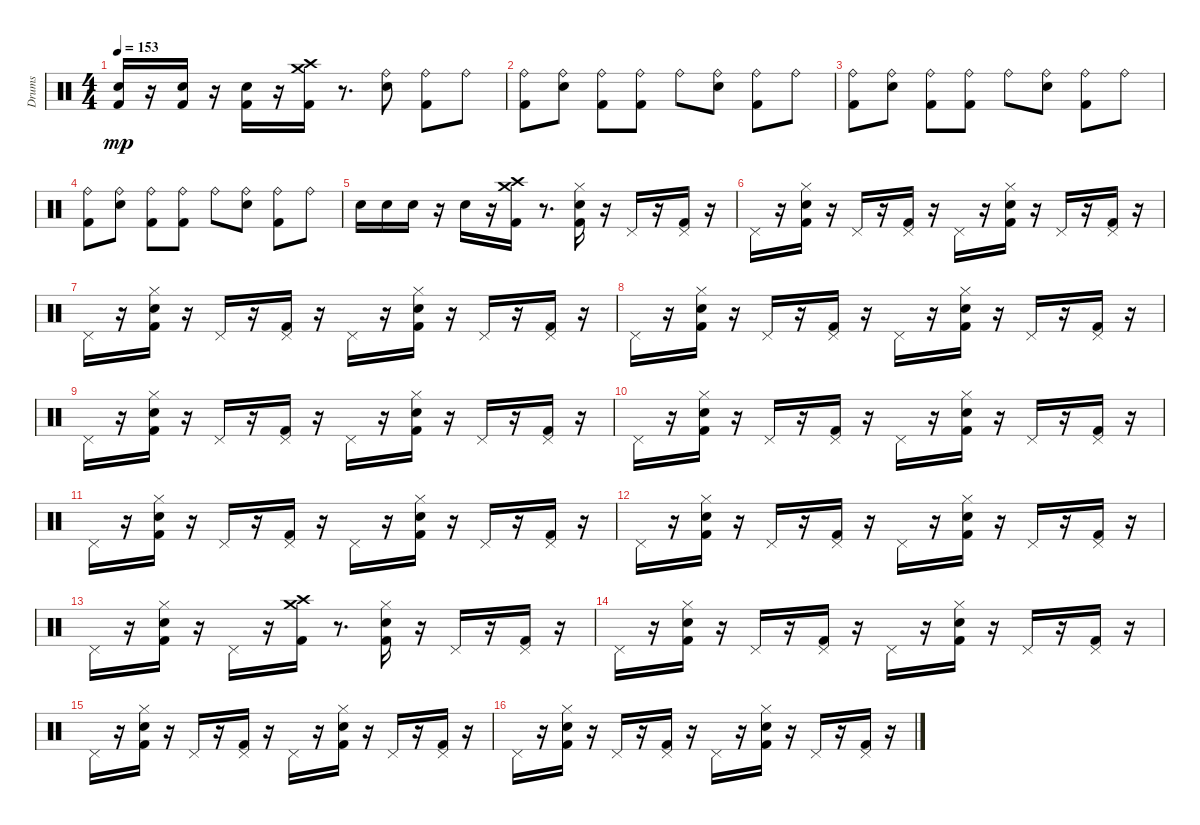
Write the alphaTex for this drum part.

\track ("Drums" "Drums") {instrument percussion}
\staff {score}
\articulation defaults
\ts (4 4)
\tempo 153
\clef neutral
\ks c
("Kick (hit) 2" "Electric Snare (hit)").16{dy mp} r.16 ("Kick (hit) 2" "Electric Snare (hit)").16 r.16 ("Kick (hit) 2" "Electric Snare (hit)").16 r.16 ("Crash high (hit)" "Kick (hit) 2" "Crash medium (hit)").16 r.8{d} ("Electric Snare (hit)" "Ride (bell)").8 ("Kick (hit) 2" "Ride (bell)").8 "Ride (bell)".8 |
("Kick (hit) 2" "Ride (bell)").8 ("Electric Snare (hit)" "Ride (bell)").8 ("Kick (hit) 2" "Ride (bell)").8 ("Kick (hit) 2" "Ride (bell)").8 "Ride (bell)".8 ("Electric Snare (hit)" "Ride (bell)").8 ("Kick (hit) 2" "Ride (bell)").8 "Ride (bell)".8 |
("Kick (hit) 2" "Ride (bell)").8 ("Electric Snare (hit)" "Ride (bell)").8 ("Kick (hit) 2" "Ride (bell)").8 ("Kick (hit) 2" "Ride (bell)").8 "Ride (bell)".8 ("Electric Snare (hit)" "Ride (bell)").8 ("Kick (hit) 2" "Ride (bell)").8 "Ride (bell)".8 |
("Kick (hit) 2" "Ride (bell)").8 ("Electric Snare (hit)" "Ride (bell)").8 ("Kick (hit) 2" "Ride (bell)").8 ("Kick (hit) 2" "Ride (bell)").8 "Ride (bell)".8 ("Electric Snare (hit)" "Ride (bell)").8 ("Kick (hit) 2" "Ride (bell)").8 "Ride (bell)".8 |
"Electric Snare (hit)".16 "Electric Snare (hit)".16 "Electric Snare (hit)".16 r.16 "Electric Snare (hit)".16 r.16 ("Crash high (hit)" "Crash medium (hit)" "Kick (hit) 2").16 r.8{d} ("Hi-Hat (closed)" "Electric Snare (hit)" "Kick (hit) 2").16 r.16 "Pedal Hi-Hat (hit)".16 r.16 ("Pedal Hi-Hat (hit)" "Kick (hit) 2").16 r.16 |
"Pedal Hi-Hat (hit)".16 r.16 ("Hi-Hat (closed)" "Electric Snare (hit)" "Kick (hit) 2").16 r.16 "Pedal Hi-Hat (hit)".16 r.16 ("Pedal Hi-Hat (hit)" "Kick (hit) 2").16 r.16 "Pedal Hi-Hat (hit)".16 r.16 ("Hi-Hat (closed)" "Electric Snare (hit)" "Kick (hit) 2").16 r.16 "Pedal Hi-Hat (hit)".16 r.16 ("Pedal Hi-Hat (hit)" "Kick (hit) 2").16 r.16 |
"Pedal Hi-Hat (hit)".16 r.16 ("Hi-Hat (closed)" "Electric Snare (hit)" "Kick (hit) 2").16 r.16 "Pedal Hi-Hat (hit)".16 r.16 ("Pedal Hi-Hat (hit)" "Kick (hit) 2").16 r.16 "Pedal Hi-Hat (hit)".16 r.16 ("Hi-Hat (closed)" "Electric Snare (hit)" "Kick (hit) 2").16 r.16 "Pedal Hi-Hat (hit)".16 r.16 ("Pedal Hi-Hat (hit)" "Kick (hit) 2").16 r.16 |
"Pedal Hi-Hat (hit)".16 r.16 ("Hi-Hat (closed)" "Electric Snare (hit)" "Kick (hit) 2").16 r.16 "Pedal Hi-Hat (hit)".16 r.16 ("Pedal Hi-Hat (hit)" "Kick (hit) 2").16 r.16 "Pedal Hi-Hat (hit)".16 r.16 ("Hi-Hat (closed)" "Kick (hit) 2" "Electric Snare (hit)").16 r.16 "Pedal Hi-Hat (hit)".16 r.16 ("Pedal Hi-Hat (hit)" "Kick (hit) 2").16 r.16 |
"Pedal Hi-Hat (hit)".16 r.16 ("Hi-Hat (closed)" "Kick (hit) 2" "Electric Snare (hit)").16 r.16 "Pedal Hi-Hat (hit)".16 r.16 ("Pedal Hi-Hat (hit)" "Kick (hit) 2").16 r.16 "Pedal Hi-Hat (hit)".16 r.16 ("Hi-Hat (closed)" "Electric Snare (hit)" "Kick (hit) 2").16 r.16 "Pedal Hi-Hat (hit)".16 r.16 ("Pedal Hi-Hat (hit)" "Kick (hit) 2").16 r.16 |
"Pedal Hi-Hat (hit)".16 r.16 ("Hi-Hat (closed)" "Electric Snare (hit)" "Kick (hit) 2").16 r.16 "Pedal Hi-Hat (hit)".16 r.16 ("Pedal Hi-Hat (hit)" "Kick (hit) 2").16 r.16 "Pedal Hi-Hat (hit)".16 r.16 ("Hi-Hat (closed)" "Electric Snare (hit)" "Kick (hit) 2").16 r.16 "Pedal Hi-Hat (hit)".16 r.16 ("Pedal Hi-Hat (hit)" "Kick (hit) 2").16 r.16 |
"Pedal Hi-Hat (hit)".16 r.16 ("Hi-Hat (closed)" "Electric Snare (hit)" "Kick (hit) 2").16 r.16 "Pedal Hi-Hat (hit)".16 r.16 ("Pedal Hi-Hat (hit)" "Kick (hit) 2").16 r.16 "Pedal Hi-Hat (hit)".16 r.16 ("Hi-Hat (closed)" "Electric Snare (hit)" "Kick (hit) 2").16 r.16 "Pedal Hi-Hat (hit)".16 r.16 ("Pedal Hi-Hat (hit)" "Kick (hit) 2").16 r.16 |
"Pedal Hi-Hat (hit)".16 r.16 ("Hi-Hat (closed)" "Electric Snare (hit)" "Kick (hit) 2").16 r.16 "Pedal Hi-Hat (hit)".16 r.16 ("Pedal Hi-Hat (hit)" "Kick (hit) 2").16 r.16 "Pedal Hi-Hat (hit)".16 r.16 ("Hi-Hat (closed)" "Electric Snare (hit)" "Kick (hit) 2").16 r.16 "Pedal Hi-Hat (hit)".16 r.16 ("Pedal Hi-Hat (hit)" "Kick (hit) 2").16 r.16 |
"Pedal Hi-Hat (hit)".16 r.16 ("Hi-Hat (closed)" "Kick (hit) 2" "Electric Snare (hit)").16 r.16 "Pedal Hi-Hat (hit)".16 r.16 ("Crash high (hit)" "Crash medium (hit)" "Kick (hit) 2").16 r.8{d} ("Hi-Hat (closed)" "Electric Snare (hit)" "Kick (hit) 2").16 r.16 "Pedal Hi-Hat (hit)".16 r.16 ("Pedal Hi-Hat (hit)" "Kick (hit) 2").16 r.16 |
"Pedal Hi-Hat (hit)".16 r.16 ("Hi-Hat (closed)" "Electric Snare (hit)" "Kick (hit) 2").16 r.16 "Pedal Hi-Hat (hit)".16 r.16 ("Pedal Hi-Hat (hit)" "Kick (hit) 2").16 r.16 "Pedal Hi-Hat (hit)".16 r.16 ("Hi-Hat (closed)" "Electric Snare (hit)" "Kick (hit) 2").16 r.16 "Pedal Hi-Hat (hit)".16 r.16 ("Pedal Hi-Hat (hit)" "Kick (hit) 2").16 r.16 |
"Pedal Hi-Hat (hit)".16 r.16 ("Hi-Hat (closed)" "Electric Snare (hit)" "Kick (hit) 2").16 r.16 "Pedal Hi-Hat (hit)".16 r.16 ("Pedal Hi-Hat (hit)" "Kick (hit) 2").16 r.16 "Pedal Hi-Hat (hit)".16 r.16 ("Hi-Hat (closed)" "Electric Snare (hit)" "Kick (hit) 2").16 r.16 "Pedal Hi-Hat (hit)".16 r.16 ("Pedal Hi-Hat (hit)" "Kick (hit) 2").16 r.16 |
"Pedal Hi-Hat (hit)".16 r.16 ("Hi-Hat (closed)" "Electric Snare (hit)" "Kick (hit) 2").16 r.16 "Pedal Hi-Hat (hit)".16 r.16 ("Pedal Hi-Hat (hit)" "Kick (hit) 2").16 r.16 "Pedal Hi-Hat (hit)".16 r.16 ("Hi-Hat (closed)" "Kick (hit) 2" "Electric Snare (hit)").16 r.16 "Pedal Hi-Hat (hit)".16 r.16 ("Pedal Hi-Hat (hit)" "Kick (hit) 2").16 r.16
